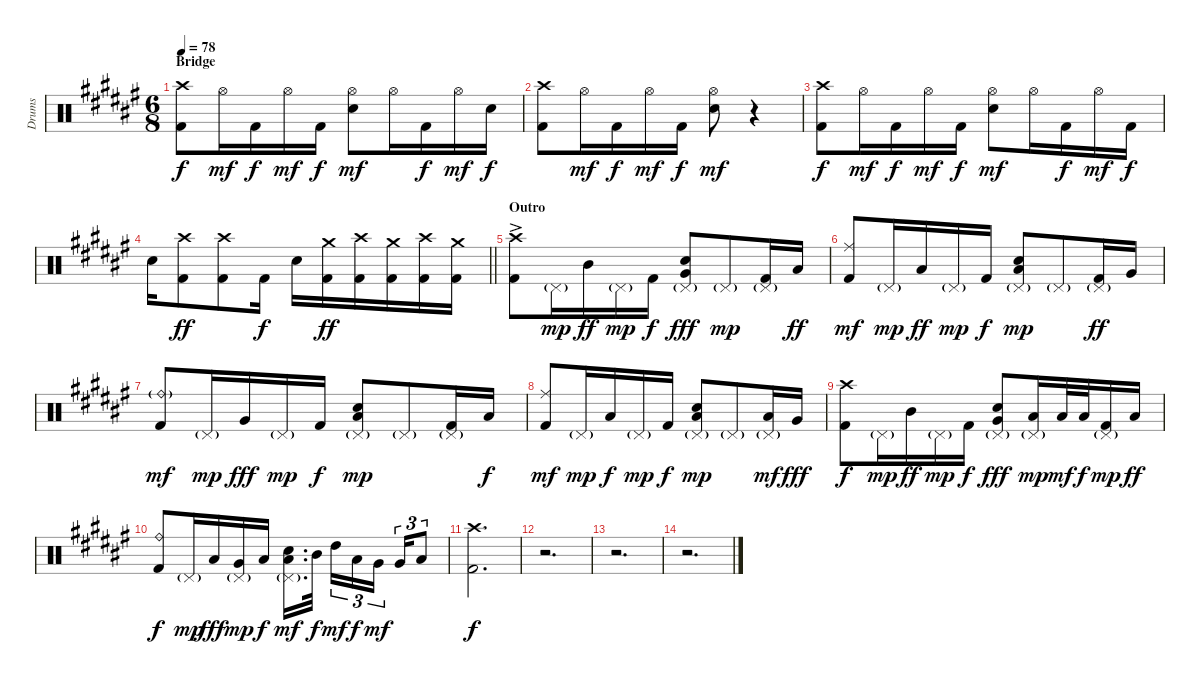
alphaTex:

\track ("Drums" "Drums") {instrument percussion}
\staff {score}
\articulation defaults
\ts (6 8)
\section ("" "Bridge")
\tempo 78
\clef neutral
\ks d#minor
("Crash high (hit)" "Kick (hit) 2").8{dy f} "Hi-Hat (open)".16{dy mf} "Kick (hit) 2".16{dy f} "Hi-Hat (open)".16{dy mf} "Kick (hit) 2".16{dy f} ("Hi-Hat (open)" "Electric Snare (hit)").8{dy mf} "Hi-Hat (open)".16 "Kick (hit) 2".16{dy f} "Hi-Hat (open)".16{dy mf} "Electric Snare (hit)".16{dy f} |
("Crash high (hit)" "Kick (hit) 2").8 "Hi-Hat (open)".16{dy mf} "Kick (hit) 2".16{dy f} "Hi-Hat (open)".16{dy mf} "Kick (hit) 2".16{dy f} ("Hi-Hat (open)" "Electric Snare (hit)").8{dy mf} r.4 |
("Crash high (hit)" "Kick (hit) 2").8{dy f} "Hi-Hat (open)".16{dy mf} "Kick (hit) 2".16{dy f} "Hi-Hat (open)".16{dy mf} "Kick (hit) 2".16{dy f} ("Hi-Hat (open)" "Electric Snare (hit)").8{dy mf} "Hi-Hat (open)".16 "Kick (hit) 2".16{dy f} "Hi-Hat (open)".16{dy mf} "Kick (hit) 2".16{dy f} |
\barLineRight lightlight "Electric Snare (hit)".16
("Crash high (hit)" "Kick (hit) 2").8{dy ff} ("Crash high (hit)" "Kick (hit) 2").8 "Kick (hit) 2".16{dy f} "Electric Snare (hit)".16 ("Crash medium (hit)" "Kick (hit) 2").16{dy ff} ("Crash high (hit)" "Kick (hit) 2").16 ("Crash medium (hit)" "Kick (hit) 2").16 ("Crash high (hit)" "Kick (hit) 2").16 ("Crash medium (hit)" "Kick (hit) 2").16 |
\section ("" "Outro")
("Crash high (hit)"{ac} "Kick (hit) 2").8 "Pedal Hi-Hat (hit)"{g}.16{dy mp} "Mid Tom (hit)".16{dy ff} "Pedal Hi-Hat (hit)"{g}.16{dy mp} "Kick (hit) 2".16{dy f} ("Pedal Hi-Hat (hit)"{g} "Very Low Tom (hit)" "Electric Snare (hit)").8{dy fff} "Pedal Hi-Hat (hit)"{g}.8{dy mp} ("Pedal Hi-Hat (hit)"{g} "Kick (hit) 2").16 "Low Tom (hit)".16{dy ff} |
("Ride (middle)" "Kick (hit) 2").8{dy mf} "Pedal Hi-Hat (hit)"{g}.16{dy mp} "Low Tom (hit)".16{dy ff} "Pedal Hi-Hat (hit)"{g}.16{dy mp} "Kick (hit) 2".16{dy f} ("Pedal Hi-Hat (hit)"{g} "Low Floor Tom (hit)" "Electric Snare (hit)").8{dy mp} "Pedal Hi-Hat (hit)"{g}.8 ("Pedal Hi-Hat (hit)"{g} "Kick (hit) 2").16{dy ff} "Very Low Tom (hit)".16 |
("Ride (bell)"{g} "Kick (hit) 2").8{dy mf} "Pedal Hi-Hat (hit)"{g}.16{dy mp} "Very Low Tom (hit)".16{dy fff} "Pedal Hi-Hat (hit)"{g}.16{dy mp} "Kick (hit) 2".16{dy f} ("Pedal Hi-Hat (hit)"{g} "Low Floor Tom (hit)" "Electric Snare (hit)").8{dy mp} "Pedal Hi-Hat (hit)"{g}.8 ("Pedal Hi-Hat (hit)"{g} "Kick (hit) 2").16 "Low Floor Tom (hit)".16{dy f} |
("Ride (middle)" "Kick (hit) 2").8{dy mf} "Pedal Hi-Hat (hit)"{g}.16{dy mp} "Low Tom (hit)".16{dy f} "Pedal Hi-Hat (hit)"{g}.16{dy mp} "Kick (hit) 2".16{dy f} ("Pedal Hi-Hat (hit)"{g} "Low Floor Tom (hit)" "Electric Snare (hit)").8{dy mp} "Pedal Hi-Hat (hit)"{g}.8 ("Pedal Hi-Hat (hit)"{g} "Low Floor Tom (hit)").16{dy mf} "Very Low Tom (hit)".16{dy fff} |
("Crash high (hit)" "Kick (hit) 2").8{dy f} "Pedal Hi-Hat (hit)"{g}.16{dy mp} "Mid Tom (hit)".16{dy ff} "Pedal Hi-Hat (hit)"{g}.16{dy mp} "Kick (hit) 2".16{dy f} ("Pedal Hi-Hat (hit)"{g} "Very Low Tom (hit)" "Electric Snare (hit)").8{dy fff} ("Pedal Hi-Hat (hit)"{g} "Low Floor Tom (hit)").16{dy mp} "Low Floor Tom (hit)".32{dy mf} "Low Floor Tom (hit)".32{dy f} ("Pedal Hi-Hat (hit)"{g} "Kick (hit) 2").16{dy mp} "Low Tom (hit)".16{dy ff} |
("Ride (bell)" "Kick (hit) 2").8{dy f} "Pedal Hi-Hat (hit)"{g}.16{dy mp} "Low Tom (hit)".16{dy fff} ("Pedal Hi-Hat (hit)"{g} "Very Low Tom (hit)").16{dy mp} "Low Floor Tom (hit)".16{dy f} ("Pedal Hi-Hat (hit)"{g} "Low Floor Tom (hit)" "Electric Snare (hit)").16{d dy mf} "Mid Tom (hit)".32{dy f beam splitsecondary} "High Tom (hit)".16{tu (3 2) dy mf} "Low Tom (hit)".16{tu (3 2) dy f} "Very Low Tom (hit)".16{tu (3 2) dy mf beam splitsecondary} "Very Low Tom (hit)".16{tu (3 2)} "Low Floor Tom (hit)".8{tu (3 2)} |
("Crash high (hit)" "Kick (hit) 2").2{d dy f} |
r.2{d} |
r.2{d} |
r.2{d}
